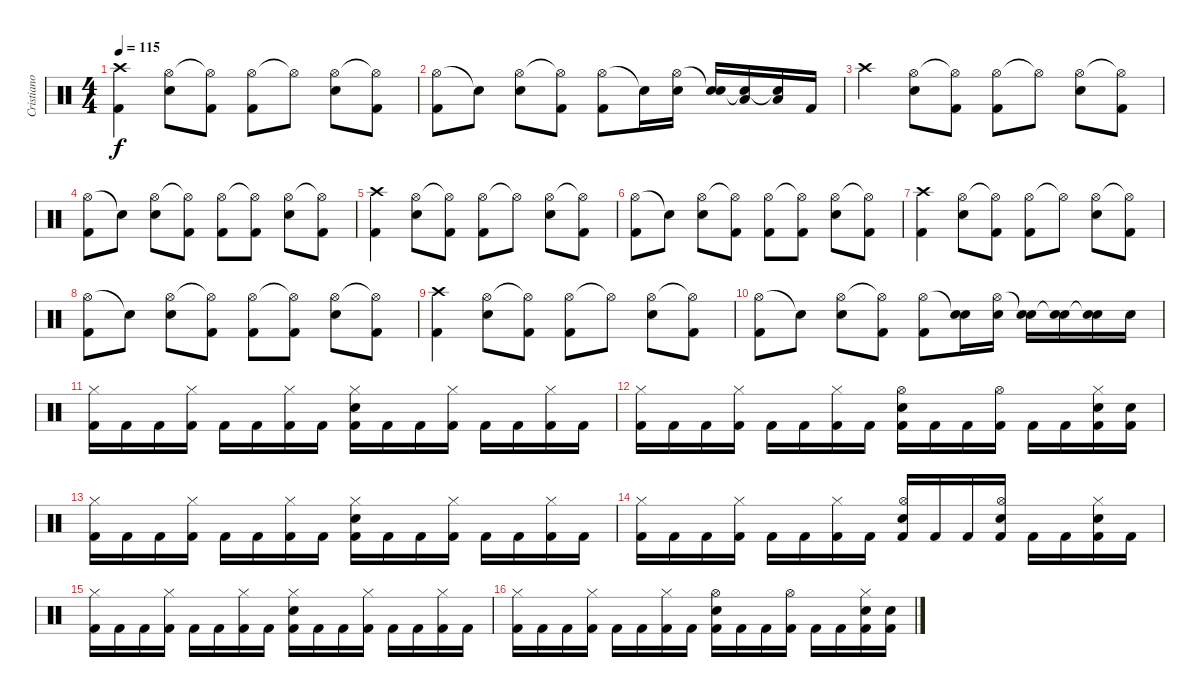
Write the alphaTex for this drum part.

\track ("Cristiano Mozzati" "Cristiano ") {instrument percussion}
\staff {score}
\articulation defaults
\ts (4 4)
\tempo 115
\clef neutral
\ks c
("Crash high (hit)" "Kick (hit) 2").4{dy f} ("Hi-Hat (open)" "Electric Snare (hit)").8 ("Hi-Hat (open)"{t} "Kick (hit) 2").8 ("Hi-Hat (open)" "Kick (hit) 2").8 "Hi-Hat (open)"{t}.8 ("Hi-Hat (open)" "Electric Snare (hit)").8 ("Hi-Hat (open)"{t} "Kick (hit) 2").8 |
("Hi-Hat (open)" "Kick (hit) 2").8 "Snare (hit)"{t}.8 ("Hi-Hat (open)" "Electric Snare (hit)").8 ("Hi-Hat (open)"{t} "Kick (hit) 2").8 ("Hi-Hat (open)" "Kick (hit) 2").8 "Snare (hit)"{t}.16 ("Hi-Hat (open)" "Electric Snare (hit)").16 ("Snare (hit)"{t} "Electric Snare (hit)").16 ("Snare (hit)"{t} "Low Tom (hit)").16 ("Snare (hit)"{t} "Low Tom (hit)").16 "Kick (hit) 2".16 |
"Crash high (hit)".4 ("Hi-Hat (open)" "Electric Snare (hit)").8 ("Hi-Hat (open)"{t} "Kick (hit) 2").8 ("Hi-Hat (open)" "Kick (hit) 2").8 "Hi-Hat (open)"{t}.8 ("Hi-Hat (open)" "Electric Snare (hit)").8 ("Hi-Hat (open)"{t} "Kick (hit) 2").8 |
("Hi-Hat (open)" "Kick (hit) 2").8 "Snare (hit)"{t}.8 ("Hi-Hat (open)" "Electric Snare (hit)").8 ("Hi-Hat (open)"{t} "Kick (hit) 2").8 ("Hi-Hat (open)" "Kick (hit) 2").8 ("Hi-Hat (open)"{t} "Kick (hit) 2").8 ("Hi-Hat (open)" "Electric Snare (hit)").8 ("Hi-Hat (open)"{t} "Kick (hit) 2").8 |
("Crash high (hit)" "Kick (hit) 2").4 ("Hi-Hat (open)" "Electric Snare (hit)").8 ("Hi-Hat (open)"{t} "Kick (hit) 2").8 ("Hi-Hat (open)" "Kick (hit) 2").8 "Hi-Hat (open)"{t}.8 ("Hi-Hat (open)" "Electric Snare (hit)").8 ("Hi-Hat (open)"{t} "Kick (hit) 2").8 |
("Hi-Hat (open)" "Kick (hit) 2").8 "Snare (hit)"{t}.8 ("Hi-Hat (open)" "Electric Snare (hit)").8 ("Hi-Hat (open)"{t} "Kick (hit) 2").8 ("Hi-Hat (open)" "Kick (hit) 2").8 ("Hi-Hat (open)"{t} "Kick (hit) 2").8 ("Hi-Hat (open)" "Electric Snare (hit)").8 ("Hi-Hat (open)"{t} "Kick (hit) 2").8 |
("Crash high (hit)" "Kick (hit) 2").4 ("Hi-Hat (open)" "Electric Snare (hit)").8 ("Hi-Hat (open)"{t} "Kick (hit) 2").8 ("Hi-Hat (open)" "Kick (hit) 2").8 "Hi-Hat (open)"{t}.8 ("Hi-Hat (open)" "Electric Snare (hit)").8 ("Hi-Hat (open)"{t} "Kick (hit) 2").8 |
("Hi-Hat (open)" "Kick (hit) 2").8 "Snare (hit)"{t}.8 ("Hi-Hat (open)" "Electric Snare (hit)").8 ("Hi-Hat (open)"{t} "Kick (hit) 2").8 ("Hi-Hat (open)" "Kick (hit) 2").8 ("Hi-Hat (open)"{t} "Kick (hit) 2").8 ("Hi-Hat (open)" "Electric Snare (hit)").8 ("Hi-Hat (open)"{t} "Kick (hit) 2").8 |
("Crash high (hit)" "Kick (hit) 2").4 ("Hi-Hat (open)" "Electric Snare (hit)").8 ("Hi-Hat (open)"{t} "Kick (hit) 2").8 ("Hi-Hat (open)" "Kick (hit) 2").8 "Hi-Hat (open)"{t}.8 ("Hi-Hat (open)" "Electric Snare (hit)").8 ("Hi-Hat (open)"{t} "Kick (hit) 2").8 |
("Hi-Hat (open)" "Kick (hit) 2").8 "Snare (hit)"{t}.8 ("Hi-Hat (open)" "Electric Snare (hit)").8 ("Hi-Hat (open)"{t} "Kick (hit) 2").8 ("Hi-Hat (open)" "Kick (hit) 2").8 ("Snare (hit)"{t} "Electric Snare (hit)").16 ("Hi-Hat (open)" "Electric Snare (hit)").16 ("Snare (hit)"{t} "Electric Snare (hit)").16 ("Snare (hit)"{t} "Electric Snare (hit)").16 ("Snare (hit)"{t} "Electric Snare (hit)").16 "Electric Snare (hit)".16 |
("Hi-Hat (closed)" "Kick (hit) 2").16 "Kick (hit) 2".16 "Kick (hit) 2".16 ("Hi-Hat (closed)" "Kick (hit) 2").16 "Kick (hit) 2".16 "Kick (hit) 2".16 ("Hi-Hat (closed)" "Kick (hit) 2").16 "Kick (hit) 2".16 ("Hi-Hat (closed)" "Electric Snare (hit)" "Kick (hit) 2").16 "Kick (hit) 2".16 "Kick (hit) 2".16 ("Hi-Hat (closed)" "Kick (hit) 2").16 "Kick (hit) 2".16 "Kick (hit) 2".16 ("Hi-Hat (closed)" "Kick (hit) 2").16 "Kick (hit) 2".16 |
("Hi-Hat (closed)" "Kick (hit) 2").16 "Kick (hit) 2".16 "Kick (hit) 2".16 ("Hi-Hat (closed)" "Kick (hit) 2").16 "Kick (hit) 2".16 "Kick (hit) 2".16 ("Hi-Hat (closed)" "Kick (hit) 2").16 "Kick (hit) 2".16 ("Hi-Hat (open)" "Electric Snare (hit)" "Kick (hit) 2").16 "Kick (hit) 2".16 "Kick (hit) 2".16 ("Hi-Hat (open)" "Kick (hit) 2").16 "Kick (hit) 2".16 "Kick (hit) 2".16 ("Hi-Hat (closed)" "Electric Snare (hit)" "Kick (hit) 2").16 ("Electric Snare (hit)" "Kick (hit) 2").16 |
("Hi-Hat (closed)" "Kick (hit) 2").16 "Kick (hit) 2".16 "Kick (hit) 2".16 ("Hi-Hat (closed)" "Kick (hit) 2").16 "Kick (hit) 2".16 "Kick (hit) 2".16 ("Hi-Hat (closed)" "Kick (hit) 2").16 "Kick (hit) 2".16 ("Hi-Hat (closed)" "Electric Snare (hit)" "Kick (hit) 2").16 "Kick (hit) 2".16 "Kick (hit) 2".16 ("Hi-Hat (closed)" "Kick (hit) 2").16 "Kick (hit) 2".16 "Kick (hit) 2".16 ("Hi-Hat (closed)" "Kick (hit) 2").16 "Kick (hit) 2".16 |
("Hi-Hat (closed)" "Kick (hit) 2").16 "Kick (hit) 2".16 "Kick (hit) 2".16 ("Hi-Hat (closed)" "Kick (hit) 2").16 "Kick (hit) 2".16 "Kick (hit) 2".16 ("Hi-Hat (closed)" "Kick (hit) 2").16 "Kick (hit) 2".16 ("Hi-Hat (open)" "Electric Snare (hit)" "Kick (hit) 2").16 "Kick (hit) 2".16 "Kick (hit) 2".16 ("Hi-Hat (open)" "Electric Snare (hit)" "Kick (hit) 2").16 "Kick (hit) 2".16 "Kick (hit) 2".16 ("Hi-Hat (closed)" "Electric Snare (hit)" "Kick (hit) 2").16 "Kick (hit) 2".16 |
("Hi-Hat (closed)" "Kick (hit) 2").16 "Kick (hit) 2".16 "Kick (hit) 2".16 ("Hi-Hat (closed)" "Kick (hit) 2").16 "Kick (hit) 2".16 "Kick (hit) 2".16 ("Hi-Hat (closed)" "Kick (hit) 2").16 "Kick (hit) 2".16 ("Hi-Hat (closed)" "Electric Snare (hit)" "Kick (hit) 2").16 "Kick (hit) 2".16 "Kick (hit) 2".16 ("Hi-Hat (closed)" "Kick (hit) 2").16 "Kick (hit) 2".16 "Kick (hit) 2".16 ("Hi-Hat (closed)" "Kick (hit) 2").16 "Kick (hit) 2".16 |
("Hi-Hat (closed)" "Kick (hit) 2").16 "Kick (hit) 2".16 "Kick (hit) 2".16 ("Hi-Hat (closed)" "Kick (hit) 2").16 "Kick (hit) 2".16 "Kick (hit) 2".16 ("Hi-Hat (closed)" "Kick (hit) 2").16 "Kick (hit) 2".16 ("Hi-Hat (open)" "Electric Snare (hit)" "Kick (hit) 2").16 "Kick (hit) 2".16 "Kick (hit) 2".16 ("Hi-Hat (open)" "Kick (hit) 2").16 "Kick (hit) 2".16 "Kick (hit) 2".16 ("Hi-Hat (closed)" "Electric Snare (hit)" "Kick (hit) 2").16 ("Electric Snare (hit)" "Kick (hit) 2").16
